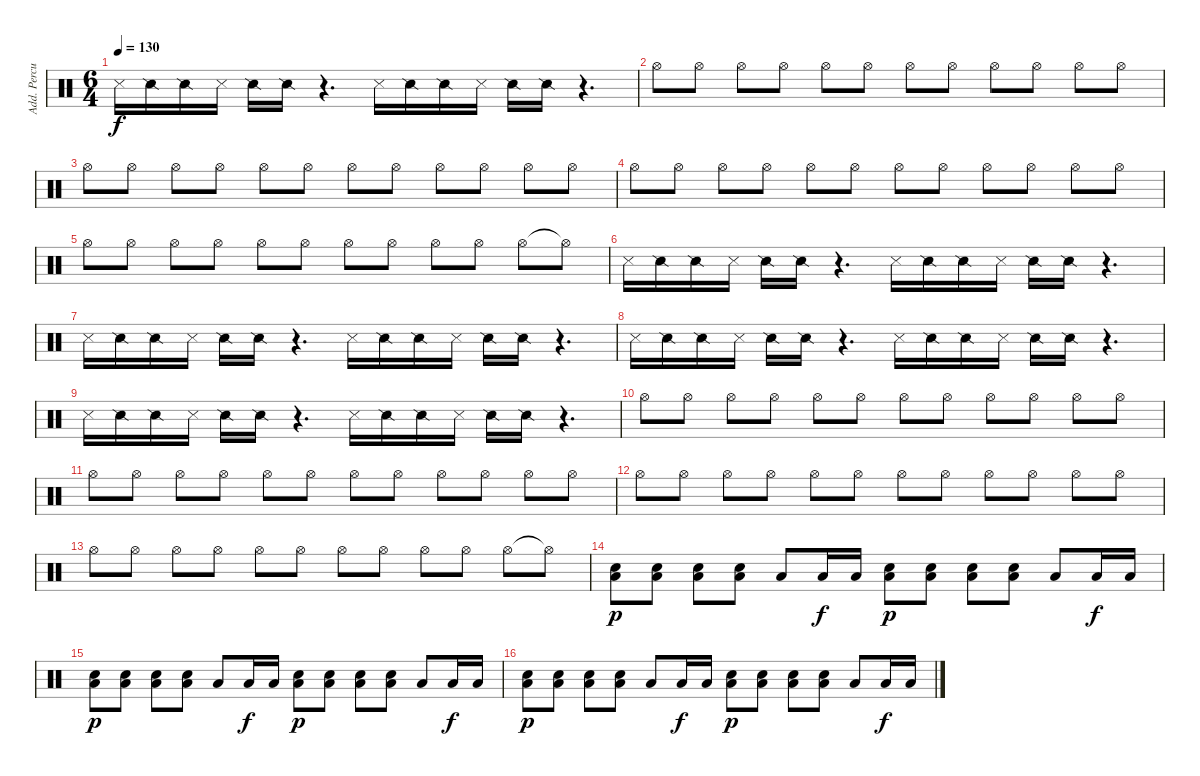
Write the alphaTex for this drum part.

\track ("Add. Percussion" "Add. Percu") {instrument percussion}
\staff {score}
\articulation defaults
\ts (6 4)
\tempo 130
\clef neutral
\ks c "Metronome (hit)".16{dy f} "Snare (side stick) 2".16 "Snare (side stick) 2".16 "Metronome (hit)".16 "Snare (side stick) 2".16 "Snare (side stick) 2".16
r.4{d} "Metronome (hit)".16 "Snare (side stick) 2".16 "Snare (side stick) 2".16 "Metronome (hit)".16 "Snare (side stick) 2".16 "Snare (side stick) 2".16 r.4{d} |
"Hi-Hat (open)".8 "Hi-Hat (open)".8 "Hi-Hat (open)".8 "Hi-Hat (open)".8 "Hi-Hat (open)".8 "Hi-Hat (open)".8 "Hi-Hat (open)".8 "Hi-Hat (open)".8 "Hi-Hat (open)".8 "Hi-Hat (open)".8 "Hi-Hat (open)".8 "Hi-Hat (open)".8 |
"Hi-Hat (open)".8 "Hi-Hat (open)".8 "Hi-Hat (open)".8 "Hi-Hat (open)".8 "Hi-Hat (open)".8 "Hi-Hat (open)".8 "Hi-Hat (open)".8 "Hi-Hat (open)".8 "Hi-Hat (open)".8 "Hi-Hat (open)".8 "Hi-Hat (open)".8 "Hi-Hat (open)".8 |
"Hi-Hat (open)".8 "Hi-Hat (open)".8 "Hi-Hat (open)".8 "Hi-Hat (open)".8 "Hi-Hat (open)".8 "Hi-Hat (open)".8 "Hi-Hat (open)".8 "Hi-Hat (open)".8 "Hi-Hat (open)".8 "Hi-Hat (open)".8 "Hi-Hat (open)".8 "Hi-Hat (open)".8 |
"Hi-Hat (open)".8 "Hi-Hat (open)".8 "Hi-Hat (open)".8 "Hi-Hat (open)".8 "Hi-Hat (open)".8 "Hi-Hat (open)".8 "Hi-Hat (open)".8 "Hi-Hat (open)".8 "Hi-Hat (open)".8 "Hi-Hat (open)".8 "Hi-Hat (open)".8 "Hi-Hat (open)"{t}.8 |
"Metronome (hit)".16 "Snare (side stick) 2".16 "Snare (side stick) 2".16 "Metronome (hit)".16 "Snare (side stick) 2".16 "Snare (side stick) 2".16 r.4{d} "Metronome (hit)".16 "Snare (side stick) 2".16 "Snare (side stick) 2".16 "Metronome (hit)".16 "Snare (side stick) 2".16 "Snare (side stick) 2".16 r.4{d} |
"Metronome (hit)".16 "Snare (side stick) 2".16 "Snare (side stick) 2".16 "Metronome (hit)".16 "Snare (side stick) 2".16 "Snare (side stick) 2".16 r.4{d} "Metronome (hit)".16 "Snare (side stick) 2".16 "Snare (side stick) 2".16 "Metronome (hit)".16 "Snare (side stick) 2".16 "Snare (side stick) 2".16 r.4{d} |
"Metronome (hit)".16 "Snare (side stick) 2".16 "Snare (side stick) 2".16 "Metronome (hit)".16 "Snare (side stick) 2".16 "Snare (side stick) 2".16 r.4{d} "Metronome (hit)".16 "Snare (side stick) 2".16 "Snare (side stick) 2".16 "Metronome (hit)".16 "Snare (side stick) 2".16 "Snare (side stick) 2".16 r.4{d} |
"Metronome (hit)".16 "Snare (side stick) 2".16 "Snare (side stick) 2".16 "Metronome (hit)".16 "Snare (side stick) 2".16 "Snare (side stick) 2".16 r.4{d} "Metronome (hit)".16 "Snare (side stick) 2".16 "Snare (side stick) 2".16 "Metronome (hit)".16 "Snare (side stick) 2".16 "Snare (side stick) 2".16 r.4{d} |
"Hi-Hat (open)".8 "Hi-Hat (open)".8 "Hi-Hat (open)".8 "Hi-Hat (open)".8 "Hi-Hat (open)".8 "Hi-Hat (open)".8 "Hi-Hat (open)".8 "Hi-Hat (open)".8 "Hi-Hat (open)".8 "Hi-Hat (open)".8 "Hi-Hat (open)".8 "Hi-Hat (open)".8 |
"Hi-Hat (open)".8 "Hi-Hat (open)".8 "Hi-Hat (open)".8 "Hi-Hat (open)".8 "Hi-Hat (open)".8 "Hi-Hat (open)".8 "Hi-Hat (open)".8 "Hi-Hat (open)".8 "Hi-Hat (open)".8 "Hi-Hat (open)".8 "Hi-Hat (open)".8 "Hi-Hat (open)".8 |
"Hi-Hat (open)".8 "Hi-Hat (open)".8 "Hi-Hat (open)".8 "Hi-Hat (open)".8 "Hi-Hat (open)".8 "Hi-Hat (open)".8 "Hi-Hat (open)".8 "Hi-Hat (open)".8 "Hi-Hat (open)".8 "Hi-Hat (open)".8 "Hi-Hat (open)".8 "Hi-Hat (open)".8 |
"Hi-Hat (open)".8 "Hi-Hat (open)".8 "Hi-Hat (open)".8 "Hi-Hat (open)".8 "Hi-Hat (open)".8 "Hi-Hat (open)".8 "Hi-Hat (open)".8 "Hi-Hat (open)".8 "Hi-Hat (open)".8 "Hi-Hat (open)".8 "Hi-Hat (open)".8 "Hi-Hat (open)"{t}.8 |
("Electric Snare (hit)" "Low Floor Tom (hit)").8{dy p} ("Electric Snare (hit)" "Low Floor Tom (hit)").8 ("Electric Snare (hit)" "Low Floor Tom (hit)").8 ("Electric Snare (hit)" "Low Floor Tom (hit)").8 "Low Floor Tom (hit)".8 "Low Tom (hit)".16{dy f} "Low Floor Tom (hit)".16 ("Electric Snare (hit)" "Low Floor Tom (hit)").8{dy p} ("Electric Snare (hit)" "Low Floor Tom (hit)").8 ("Electric Snare (hit)" "Low Floor Tom (hit)").8 ("Electric Snare (hit)" "Low Floor Tom (hit)").8 "Low Floor Tom (hit)".8 "Low Tom (hit)".16{dy f} "Low Floor Tom (hit)".16 |
("Electric Snare (hit)" "Low Floor Tom (hit)").8{dy p} ("Electric Snare (hit)" "Low Floor Tom (hit)").8 ("Electric Snare (hit)" "Low Floor Tom (hit)").8 ("Electric Snare (hit)" "Low Floor Tom (hit)").8 "Low Floor Tom (hit)".8 "Low Tom (hit)".16{dy f} "Low Floor Tom (hit)".16 ("Electric Snare (hit)" "Low Floor Tom (hit)").8{dy p} ("Electric Snare (hit)" "Low Floor Tom (hit)").8 ("Electric Snare (hit)" "Low Floor Tom (hit)").8 ("Electric Snare (hit)" "Low Floor Tom (hit)").8 "Low Floor Tom (hit)".8 "Low Tom (hit)".16{dy f} "Low Floor Tom (hit)".16 |
("Electric Snare (hit)" "Low Floor Tom (hit)").8{dy p} ("Electric Snare (hit)" "Low Floor Tom (hit)").8 ("Electric Snare (hit)" "Low Floor Tom (hit)").8 ("Electric Snare (hit)" "Low Floor Tom (hit)").8 "Low Floor Tom (hit)".8 "Low Tom (hit)".16{dy f} "Low Floor Tom (hit)".16 ("Electric Snare (hit)" "Low Floor Tom (hit)").8{dy p} ("Electric Snare (hit)" "Low Floor Tom (hit)").8 ("Electric Snare (hit)" "Low Floor Tom (hit)").8 ("Electric Snare (hit)" "Low Floor Tom (hit)").8 "Low Floor Tom (hit)".8 "Low Tom (hit)".16{dy f} "Low Floor Tom (hit)".16
